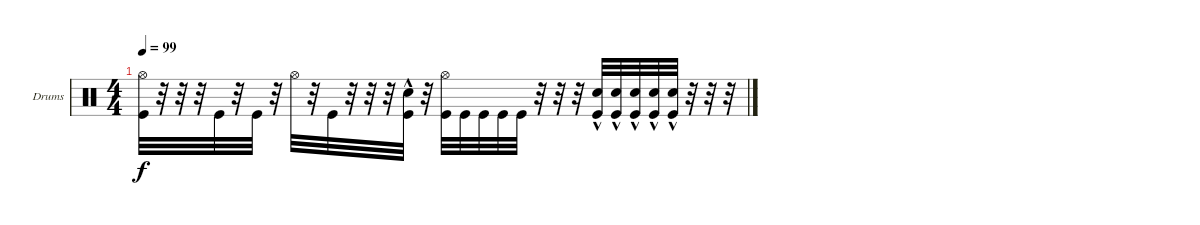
\defaultSystemsLayout 4
\bracketExtendMode groupsimilarinstruments
\firstSystemTrackNameOrientation horizontal
\otherSystemsTrackNameOrientation horizontal
\track ("Drumkit" "Drums") {instrument percussion}
\staff {score}
\articulation defaults
\ts (4 4)
\tempo 99
\clef neutral
\ks c
("Kick (hit)" "Hi-Hat (open)").32{dy f} r.32 r.32 r.32 "Kick (hit)".32 r.32 "Kick (hit)".32 r.32 "Hi-Hat (open)".32 r.32 "Kick (hit)".32 r.32 r.32 r.32 ("Kick (hit)" "Snare (hit) 2"{hac}).32 r.32 ("Kick (hit)" "Hi-Hat (open)").32 "Kick (hit)".32 "Kick (hit)".32 "Kick (hit)".32 "Kick (hit)".32 r.32 r.32 r.32 ("Kick (hit)" "Snare (hit) 2"{hac}).32 ("Kick (hit)" "Snare (hit) 2"{hac}).32 ("Kick (hit)" "Snare (hit) 2"{hac}).32 ("Kick (hit)" "Snare (hit) 2"{hac}).32 ("Kick (hit)" "Snare (hit) 2"{hac}).32 r.32 r.32 r.32
